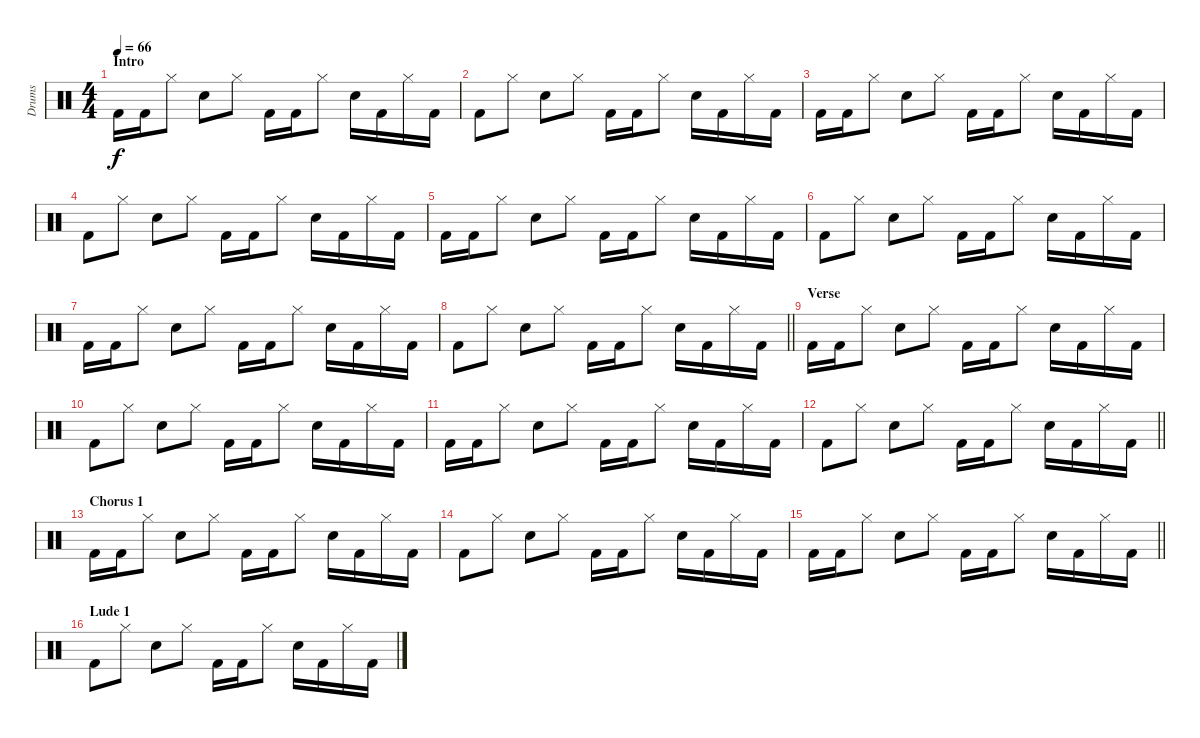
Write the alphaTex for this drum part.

\track ("Drums" "Drums") {instrument percussion}
\staff {score}
\articulation defaults
\ts (4 4)
\section ("" "Intro")
\tempo 66
\clef neutral
\ks c "Kick (hit) 2".16{dy f} "Kick (hit) 2".16 "Hi-Hat (closed)".8 "Snare (hit) 2".8 "Hi-Hat (closed)".8 "Kick (hit) 2".16 "Kick (hit) 2".16 "Hi-Hat (closed)".8 "Snare (hit) 2".16 "Kick (hit) 2".16 "Hi-Hat (closed)".16 "Kick (hit) 2".16
|
"Kick (hit) 2".8 "Hi-Hat (closed)".8 "Snare (hit) 2".8 "Hi-Hat (closed)".8 "Kick (hit) 2".16 "Kick (hit) 2".16 "Hi-Hat (closed)".8 "Snare (hit) 2".16 "Kick (hit) 2".16 "Hi-Hat (closed)".16 "Kick (hit) 2".16 |
"Kick (hit) 2".16 "Kick (hit) 2".16 "Hi-Hat (closed)".8 "Snare (hit) 2".8 "Hi-Hat (closed)".8 "Kick (hit) 2".16 "Kick (hit) 2".16 "Hi-Hat (closed)".8 "Snare (hit) 2".16 "Kick (hit) 2".16 "Hi-Hat (closed)".16 "Kick (hit) 2".16 |
"Kick (hit) 2".8 "Hi-Hat (closed)".8 "Snare (hit) 2".8 "Hi-Hat (closed)".8 "Kick (hit) 2".16 "Kick (hit) 2".16 "Hi-Hat (closed)".8 "Snare (hit) 2".16 "Kick (hit) 2".16 "Hi-Hat (closed)".16 "Kick (hit) 2".16 |
"Kick (hit) 2".16 "Kick (hit) 2".16 "Hi-Hat (closed)".8 "Snare (hit) 2".8 "Hi-Hat (closed)".8 "Kick (hit) 2".16 "Kick (hit) 2".16 "Hi-Hat (closed)".8 "Snare (hit) 2".16 "Kick (hit) 2".16 "Hi-Hat (closed)".16 "Kick (hit) 2".16 |
"Kick (hit) 2".8 "Hi-Hat (closed)".8 "Snare (hit) 2".8 "Hi-Hat (closed)".8 "Kick (hit) 2".16 "Kick (hit) 2".16 "Hi-Hat (closed)".8 "Snare (hit) 2".16 "Kick (hit) 2".16 "Hi-Hat (closed)".16 "Kick (hit) 2".16 |
"Kick (hit) 2".16 "Kick (hit) 2".16 "Hi-Hat (closed)".8 "Snare (hit) 2".8 "Hi-Hat (closed)".8 "Kick (hit) 2".16 "Kick (hit) 2".16 "Hi-Hat (closed)".8 "Snare (hit) 2".16 "Kick (hit) 2".16 "Hi-Hat (closed)".16 "Kick (hit) 2".16 |
\barLineRight lightlight "Kick (hit) 2".8 "Hi-Hat (closed)".8 "Snare (hit) 2".8 "Hi-Hat (closed)".8 "Kick (hit) 2".16 "Kick (hit) 2".16 "Hi-Hat (closed)".8 "Snare (hit) 2".16 "Kick (hit) 2".16 "Hi-Hat (closed)".16 "Kick (hit) 2".16
|
\section ("" "Verse")
"Kick (hit) 2".16 "Kick (hit) 2".16 "Hi-Hat (closed)".8 "Snare (hit) 2".8 "Hi-Hat (closed)".8 "Kick (hit) 2".16 "Kick (hit) 2".16 "Hi-Hat (closed)".8 "Snare (hit) 2".16 "Kick (hit) 2".16 "Hi-Hat (closed)".16 "Kick (hit) 2".16 |
"Kick (hit) 2".8 "Hi-Hat (closed)".8 "Snare (hit) 2".8 "Hi-Hat (closed)".8 "Kick (hit) 2".16 "Kick (hit) 2".16 "Hi-Hat (closed)".8 "Snare (hit) 2".16 "Kick (hit) 2".16 "Hi-Hat (closed)".16 "Kick (hit) 2".16 |
"Kick (hit) 2".16 "Kick (hit) 2".16 "Hi-Hat (closed)".8 "Snare (hit) 2".8 "Hi-Hat (closed)".8 "Kick (hit) 2".16 "Kick (hit) 2".16 "Hi-Hat (closed)".8 "Snare (hit) 2".16 "Kick (hit) 2".16 "Hi-Hat (closed)".16 "Kick (hit) 2".16 |
\barLineRight lightlight "Kick (hit) 2".8 "Hi-Hat (closed)".8 "Snare (hit) 2".8 "Hi-Hat (closed)".8 "Kick (hit) 2".16 "Kick (hit) 2".16 "Hi-Hat (closed)".8 "Snare (hit) 2".16 "Kick (hit) 2".16 "Hi-Hat (closed)".16 "Kick (hit) 2".16
|
\section ("" "Chorus 1")
"Kick (hit) 2".16 "Kick (hit) 2".16 "Hi-Hat (closed)".8 "Snare (hit) 2".8 "Hi-Hat (closed)".8 "Kick (hit) 2".16 "Kick (hit) 2".16 "Hi-Hat (closed)".8 "Snare (hit) 2".16 "Kick (hit) 2".16 "Hi-Hat (closed)".16 "Kick (hit) 2".16 |
"Kick (hit) 2".8 "Hi-Hat (closed)".8 "Snare (hit) 2".8 "Hi-Hat (closed)".8 "Kick (hit) 2".16 "Kick (hit) 2".16 "Hi-Hat (closed)".8 "Snare (hit) 2".16 "Kick (hit) 2".16 "Hi-Hat (closed)".16 "Kick (hit) 2".16 |
\barLineRight lightlight "Kick (hit) 2".16 "Kick (hit) 2".16 "Hi-Hat (closed)".8 "Snare (hit) 2".8 "Hi-Hat (closed)".8 "Kick (hit) 2".16 "Kick (hit) 2".16 "Hi-Hat (closed)".8 "Snare (hit) 2".16 "Kick (hit) 2".16 "Hi-Hat (closed)".16 "Kick (hit) 2".16
|
\section ("" "Lude 1")
"Kick (hit) 2".8 "Hi-Hat (closed)".8 "Snare (hit) 2".8 "Hi-Hat (closed)".8 "Kick (hit) 2".16 "Kick (hit) 2".16 "Hi-Hat (closed)".8 "Snare (hit) 2".16 "Kick (hit) 2".16 "Hi-Hat (closed)".16 "Kick (hit) 2".16
